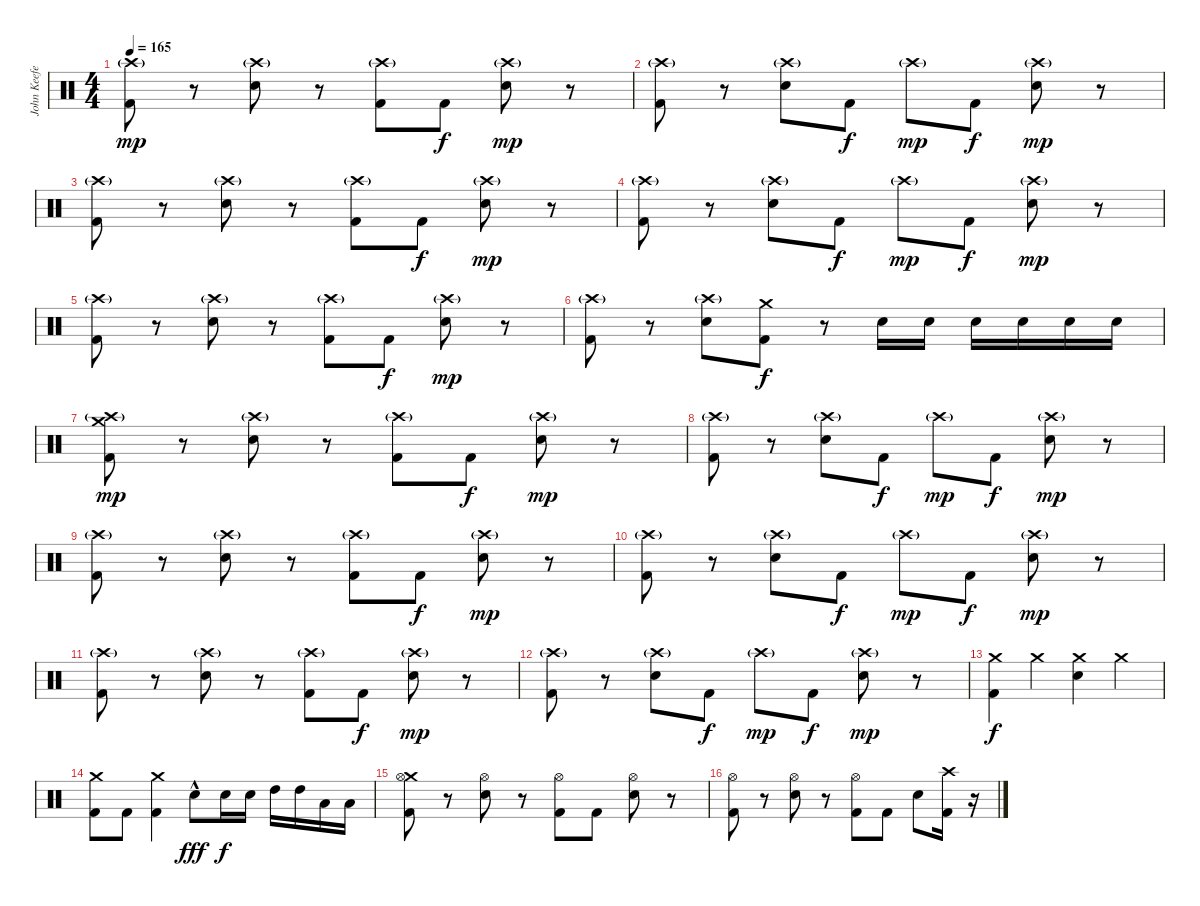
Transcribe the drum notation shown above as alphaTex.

\track ("John Keefe (Drums)" "John Keefe") {instrument percussion}
\staff {score}
\articulation defaults
\ts (4 4)
\tempo 165
\clef neutral
\ks c
("Crash high (hit)"{g} "Kick (hit) 2").8{dy mp} r.8 ("Crash high (hit)"{g} "Electric Snare (hit)").8 r.8 ("Crash high (hit)"{g} "Kick (hit) 2").8 "Kick (hit) 2".8{dy f} ("Crash high (hit)"{g} "Electric Snare (hit)").8{dy mp} r.8 |
("Crash high (hit)"{g} "Kick (hit) 2").8 r.8 ("Crash high (hit)"{g} "Electric Snare (hit)").8 "Kick (hit) 2".8{dy f} "Crash high (hit)"{g}.8{dy mp} "Kick (hit) 2".8{dy f} ("Crash high (hit)"{g} "Electric Snare (hit)").8{dy mp} r.8 |
("Crash high (hit)"{g} "Kick (hit) 2").8 r.8 ("Crash high (hit)"{g} "Electric Snare (hit)").8 r.8 ("Crash high (hit)"{g} "Kick (hit) 2").8 "Kick (hit) 2".8{dy f} ("Crash high (hit)"{g} "Electric Snare (hit)").8{dy mp} r.8 |
("Crash high (hit)"{g} "Kick (hit) 2").8 r.8 ("Crash high (hit)"{g} "Electric Snare (hit)").8 "Kick (hit) 2".8{dy f} "Crash high (hit)"{g}.8{dy mp} "Kick (hit) 2".8{dy f} ("Crash high (hit)"{g} "Electric Snare (hit)").8{dy mp} r.8 |
("Crash high (hit)"{g} "Kick (hit) 2").8 r.8 ("Crash high (hit)"{g} "Electric Snare (hit)").8 r.8 ("Crash high (hit)"{g} "Kick (hit) 2").8 "Kick (hit) 2".8{dy f} ("Crash high (hit)"{g} "Electric Snare (hit)").8{dy mp} r.8 |
("Crash high (hit)"{g} "Kick (hit) 2").8 r.8 ("Crash high (hit)"{g} "Electric Snare (hit)").8 ("Crash medium (hit)" "Kick (hit) 2").8{dy f} r.8 "Electric Snare (hit)".16 "Electric Snare (hit)".16 "Electric Snare (hit)".16 "Electric Snare (hit)".16 "Electric Snare (hit)".16 "Electric Snare (hit)".16 |
("Crash high (hit)"{g} "Crash medium (hit)" "Kick (hit) 2").8{dy mp} r.8 ("Crash high (hit)"{g} "Electric Snare (hit)").8 r.8 ("Crash high (hit)"{g} "Kick (hit) 2").8 "Kick (hit) 2".8{dy f} ("Crash high (hit)"{g} "Electric Snare (hit)").8{dy mp} r.8 |
("Crash high (hit)"{g} "Kick (hit) 2").8 r.8 ("Crash high (hit)"{g} "Electric Snare (hit)").8 "Kick (hit) 2".8{dy f} "Crash high (hit)"{g}.8{dy mp} "Kick (hit) 2".8{dy f} ("Crash high (hit)"{g} "Electric Snare (hit)").8{dy mp} r.8 |
("Crash high (hit)"{g} "Kick (hit) 2").8 r.8 ("Crash high (hit)"{g} "Electric Snare (hit)").8 r.8 ("Crash high (hit)"{g} "Kick (hit) 2").8 "Kick (hit) 2".8{dy f} ("Crash high (hit)"{g} "Electric Snare (hit)").8{dy mp} r.8 |
("Crash high (hit)"{g} "Kick (hit) 2").8 r.8 ("Crash high (hit)"{g} "Electric Snare (hit)").8 "Kick (hit) 2".8{dy f} "Crash high (hit)"{g}.8{dy mp} "Kick (hit) 2".8{dy f} ("Crash high (hit)"{g} "Electric Snare (hit)").8{dy mp} r.8 |
("Crash high (hit)"{g} "Kick (hit) 2").8 r.8 ("Crash high (hit)"{g} "Electric Snare (hit)").8 r.8 ("Crash high (hit)"{g} "Kick (hit) 2").8 "Kick (hit) 2".8{dy f} ("Crash high (hit)"{g} "Electric Snare (hit)").8{dy mp} r.8 |
("Crash high (hit)"{g} "Kick (hit) 2").8 r.8 ("Crash high (hit)"{g} "Electric Snare (hit)").8 "Kick (hit) 2".8{dy f} "Crash high (hit)"{g}.8{dy mp} "Kick (hit) 2".8{dy f} ("Crash high (hit)"{g} "Electric Snare (hit)").8{dy mp} r.8 |
("Crash medium (hit)" "Kick (hit) 2").4{dy f} "Crash medium (hit)".4 ("Crash medium (hit)" "Electric Snare (hit)").4 "Crash medium (hit)".4 |
("Crash medium (hit)" "Kick (hit) 2").8 "Kick (hit) 2".8 ("Crash medium (hit)" "Kick (hit) 2").4 "Electric Snare (hit)"{hac}.8{dy fff} "Electric Snare (hit)".16{dy f} "Electric Snare (hit)".16 "High Tom (hit)".16 "High Tom (hit)".16 "Low Tom (hit)".16 "Low Tom (hit)".16 |
("Crash medium (hit)" "Hi-Hat (open)" "Kick (hit) 2").8 r.8 ("Hi-Hat (open)" "Electric Snare (hit)").8 r.8 ("Hi-Hat (open)" "Kick (hit) 2").8 "Kick (hit) 2".8 ("Hi-Hat (open)" "Electric Snare (hit)").8 r.8 |
("Hi-Hat (open)" "Kick (hit) 2").8 r.8 ("Hi-Hat (open)" "Electric Snare (hit)").8 r.8 ("Hi-Hat (open)" "Kick (hit) 2").8 "Kick (hit) 2".8 "Electric Snare (hit)".8 ("Crash high (hit)" "Kick (hit) 2").16 r.16
